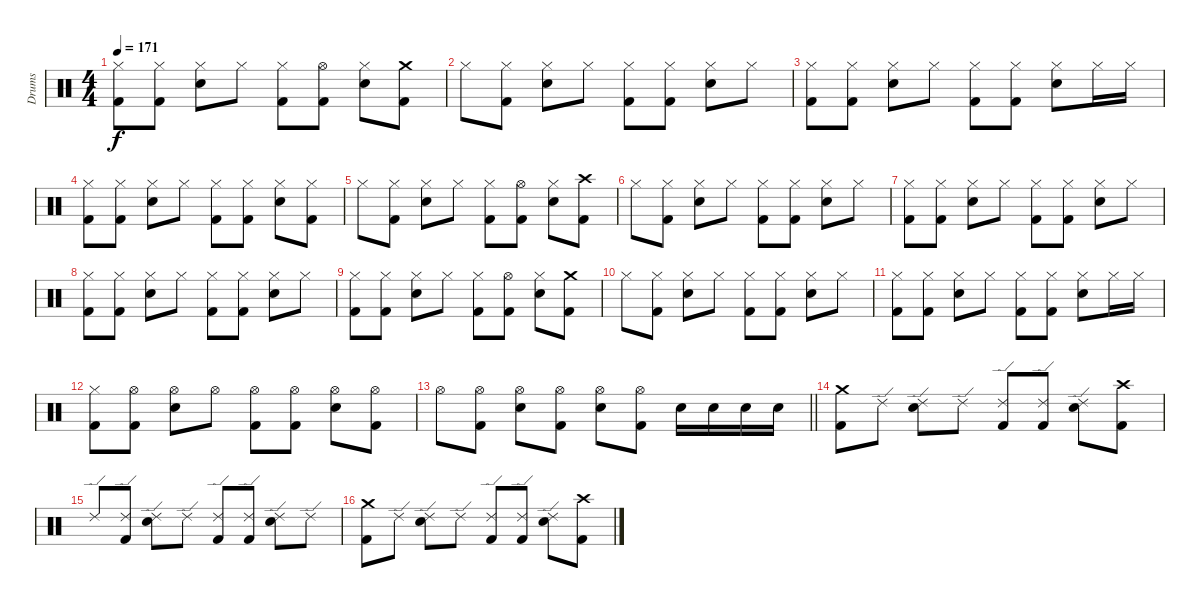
\track ("Drums" "Drums") {instrument percussion}
\staff {score}
\articulation defaults
\ts (4 4)
\tempo 171
\clef neutral
\ks c
("Hi-Hat (closed)" "Kick (hit) 2").8{dy f} ("Hi-Hat (closed)" "Kick (hit) 2").8 ("Hi-Hat (closed)" "Electric Snare (hit)").8 "Hi-Hat (closed)".8 ("Hi-Hat (closed)" "Kick (hit) 2").8 ("Hi-Hat (open)" "Kick (hit) 2").8 ("Hi-Hat (closed)" "Electric Snare (hit)").8 ("Crash medium (hit)" "Kick (hit) 2").8 |
"Hi-Hat (closed)".8 ("Hi-Hat (closed)" "Kick (hit) 2").8 ("Hi-Hat (closed)" "Electric Snare (hit)").8 "Hi-Hat (closed)".8 ("Hi-Hat (closed)" "Kick (hit) 2").8 ("Hi-Hat (closed)" "Kick (hit) 2").8 ("Hi-Hat (closed)" "Electric Snare (hit)").8 "Hi-Hat (closed)".8 |
("Hi-Hat (closed)" "Kick (hit) 2").8 ("Hi-Hat (closed)" "Kick (hit) 2").8 ("Hi-Hat (closed)" "Electric Snare (hit)").8 "Hi-Hat (closed)".8 ("Hi-Hat (closed)" "Kick (hit) 2").8 ("Hi-Hat (closed)" "Kick (hit) 2").8 ("Hi-Hat (closed)" "Electric Snare (hit)").8 "Hi-Hat (closed)".16 "Hi-Hat (closed)".16 |
("Hi-Hat (closed)" "Kick (hit) 2").8 ("Hi-Hat (closed)" "Kick (hit) 2").8 ("Hi-Hat (closed)" "Electric Snare (hit)").8 "Hi-Hat (closed)".8 ("Hi-Hat (closed)" "Kick (hit) 2").8 ("Hi-Hat (closed)" "Kick (hit) 2").8 ("Hi-Hat (closed)" "Electric Snare (hit)").8 ("Hi-Hat (closed)" "Kick (hit) 2").8 |
"Hi-Hat (closed)".8 ("Hi-Hat (closed)" "Kick (hit) 2").8 ("Hi-Hat (closed)" "Electric Snare (hit)").8 "Hi-Hat (closed)".8 ("Hi-Hat (closed)" "Kick (hit) 2").8 ("Hi-Hat (open)" "Kick (hit) 2").8 ("Hi-Hat (closed)" "Electric Snare (hit)").8 ("Crash high (hit)" "Kick (hit) 2").8 |
"Hi-Hat (closed)".8 ("Hi-Hat (closed)" "Kick (hit) 2").8 ("Hi-Hat (closed)" "Electric Snare (hit)").8 "Hi-Hat (closed)".8 ("Hi-Hat (closed)" "Kick (hit) 2").8 ("Hi-Hat (closed)" "Kick (hit) 2").8 ("Hi-Hat (closed)" "Electric Snare (hit)").8 "Hi-Hat (closed)".8 |
("Hi-Hat (closed)" "Kick (hit) 2").8 ("Hi-Hat (closed)" "Kick (hit) 2").8 ("Hi-Hat (closed)" "Electric Snare (hit)").8 "Hi-Hat (closed)".8 ("Hi-Hat (closed)" "Kick (hit) 2").8 ("Hi-Hat (closed)" "Kick (hit) 2").8 ("Hi-Hat (closed)" "Electric Snare (hit)").8 "Hi-Hat (closed)".8 |
("Hi-Hat (closed)" "Kick (hit) 2").8 ("Hi-Hat (closed)" "Kick (hit) 2").8 ("Hi-Hat (closed)" "Electric Snare (hit)").8 "Hi-Hat (closed)".8 ("Hi-Hat (closed)" "Kick (hit) 2").8 ("Hi-Hat (closed)" "Kick (hit) 2").8 ("Hi-Hat (closed)" "Electric Snare (hit)").8 "Hi-Hat (closed)".8 |
("Hi-Hat (closed)" "Kick (hit) 2").8 ("Hi-Hat (closed)" "Kick (hit) 2").8 ("Hi-Hat (closed)" "Electric Snare (hit)").8 "Hi-Hat (closed)".8 ("Hi-Hat (closed)" "Kick (hit) 2").8 ("Hi-Hat (open)" "Kick (hit) 2").8 ("Hi-Hat (closed)" "Electric Snare (hit)").8 ("Crash medium (hit)" "Kick (hit) 2").8 |
"Hi-Hat (closed)".8 ("Hi-Hat (closed)" "Kick (hit) 2").8 ("Hi-Hat (closed)" "Electric Snare (hit)").8 "Hi-Hat (closed)".8 ("Hi-Hat (closed)" "Kick (hit) 2").8 ("Hi-Hat (closed)" "Kick (hit) 2").8 ("Hi-Hat (closed)" "Electric Snare (hit)").8 "Hi-Hat (closed)".8 |
("Hi-Hat (closed)" "Kick (hit) 2").8 ("Hi-Hat (closed)" "Kick (hit) 2").8 ("Hi-Hat (closed)" "Electric Snare (hit)").8 "Hi-Hat (closed)".8 ("Hi-Hat (closed)" "Kick (hit) 2").8 ("Hi-Hat (closed)" "Kick (hit) 2").8 ("Hi-Hat (closed)" "Electric Snare (hit)").8 "Hi-Hat (closed)".16 "Hi-Hat (closed)".16 |
("Hi-Hat (closed)" "Kick (hit) 2").8 ("Hi-Hat (open)" "Kick (hit) 2").8 ("Hi-Hat (open)" "Electric Snare (hit)").8 "Hi-Hat (open)".8 ("Hi-Hat (open)" "Kick (hit) 2").8 ("Hi-Hat (open)" "Kick (hit) 2").8 ("Hi-Hat (open)" "Electric Snare (hit)").8 ("Hi-Hat (open)" "Kick (hit) 2").8 |
\barLineRight lightlight "Hi-Hat (open)".8
("Hi-Hat (open)" "Kick (hit) 2").8 ("Hi-Hat (open)" "Electric Snare (hit)").8 ("Hi-Hat (open)" "Kick (hit) 2").8 ("Hi-Hat (open)" "Electric Snare (hit)").8 ("Hi-Hat (open)" "Kick (hit) 2").8 "Electric Snare (hit)".16 "Electric Snare (hit)".16 "Electric Snare (hit)".16 "Electric Snare (hit)".16 |
("Crash medium (hit)" "Kick (hit) 2").8 "Ride (edge) 2".8 ("Ride (edge) 2" "Electric Snare (hit)").8 "Ride (edge) 2".8 ("Ride (edge) 2" "Kick (hit) 2").8 ("Ride (edge) 2" "Kick (hit) 2").8 ("Ride (edge) 2" "Electric Snare (hit)").8 ("Crash high (hit)" "Kick (hit) 2").8 |
"Ride (edge) 2".8 ("Ride (edge) 2" "Kick (hit) 2").8 ("Ride (edge) 2" "Electric Snare (hit)").8 "Ride (edge) 2".8 ("Ride (edge) 2" "Kick (hit) 2").8 ("Ride (edge) 2" "Kick (hit) 2").8 ("Ride (edge) 2" "Electric Snare (hit)").8 "Ride (edge) 2".8 |
("Crash medium (hit)" "Kick (hit) 2").8 "Ride (edge) 2".8 ("Ride (edge) 2" "Electric Snare (hit)").8 "Ride (edge) 2".8 ("Ride (edge) 2" "Kick (hit) 2").8 ("Ride (edge) 2" "Kick (hit) 2").8 ("Ride (edge) 2" "Electric Snare (hit)").8 ("Crash high (hit)" "Kick (hit) 2").8
